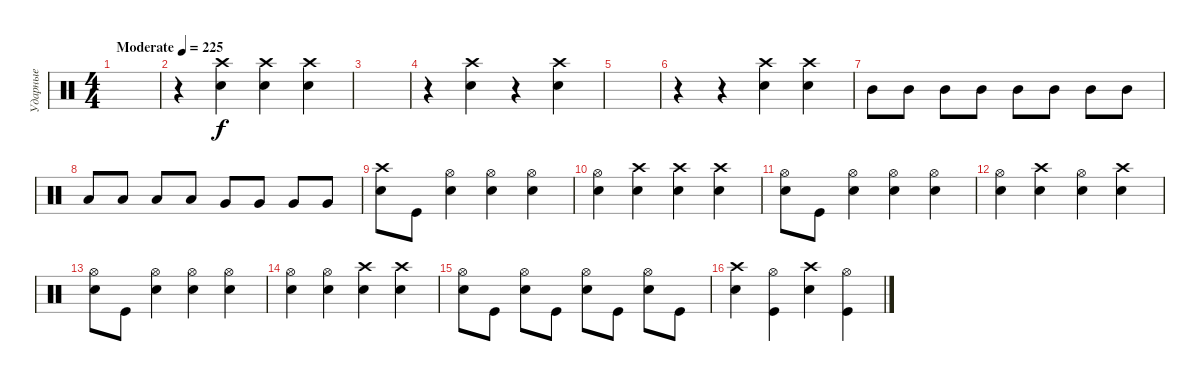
\track ("Ударные" "Ударные") {instrument percussion}
\staff {score}
\articulation defaults
\ts (4 4)
\tempo (225 "Moderate")
\clef neutral
\ks c
|
r.4 ("Snare (hit) 2" "Crash high (hit)").4 ("Snare (hit) 2" "Crash high (hit)").4 ("Snare (hit) 2" "Crash high (hit)").4 |
|
r.4 ("Snare (hit) 2" "Crash high (hit)").4 r.4 ("Snare (hit) 2" "Crash high (hit)").4 |
|
r.4 r.4 ("Snare (hit) 2" "Crash high (hit)").4 ("Snare (hit) 2" "Crash high (hit)").4 |
"Mid Tom (hit)".8 "Mid Tom (hit)".8 "Mid Tom (hit)".8 "Mid Tom (hit)".8 "Mid Tom (hit)".8 "Mid Tom (hit)".8 "Mid Tom (hit)".8 "Mid Tom (hit)".8 |
"Low Tom (hit)".8 "Low Tom (hit)".8 "Low Tom (hit)".8 "Low Tom (hit)".8 "Very Low Tom (hit)".8 "Very Low Tom (hit)".8 "Very Low Tom (hit)".8 "Very Low Tom (hit)".8 |
("Crash high (hit)" "Snare (hit) 2").8 "Kick (hit)".8 ("Hi-Hat (open)" "Snare (hit) 2").4 ("Hi-Hat (open)" "Snare (hit) 2").4 ("Hi-Hat (open)" "Snare (hit) 2").4 |
("Hi-Hat (open)" "Snare (hit) 2").4 ("Crash high (hit)" "Snare (hit) 2").4 ("Crash high (hit)" "Snare (hit) 2").4 ("Crash high (hit)" "Snare (hit) 2").4 |
("Hi-Hat (open)" "Snare (hit) 2").8 "Kick (hit)".8 ("Hi-Hat (open)" "Snare (hit) 2").4 ("Hi-Hat (open)" "Snare (hit) 2").4 ("Hi-Hat (open)" "Snare (hit) 2").4 |
("Hi-Hat (open)" "Snare (hit) 2").4 ("Crash high (hit)" "Snare (hit) 2").4 ("Hi-Hat (open)" "Snare (hit) 2").4 ("Crash high (hit)" "Snare (hit) 2").4 |
("Hi-Hat (open)" "Snare (hit) 2").8 "Kick (hit)".8 ("Hi-Hat (open)" "Snare (hit) 2").4 ("Hi-Hat (open)" "Snare (hit) 2").4 ("Hi-Hat (open)" "Snare (hit) 2").4 |
("Hi-Hat (open)" "Snare (hit) 2").4 ("Hi-Hat (open)" "Snare (hit) 2").4 ("Crash high (hit)" "Snare (hit) 2").4 ("Crash high (hit)" "Snare (hit) 2").4 |
("Hi-Hat (open)" "Snare (hit) 2").8 "Kick (hit)".8 ("Hi-Hat (open)" "Snare (hit) 2").8 "Kick (hit)".8 ("Hi-Hat (open)" "Snare (hit) 2").8 "Kick (hit)".8 ("Hi-Hat (open)" "Snare (hit) 2").8 "Kick (hit)".8 |
("Crash high (hit)" "Snare (hit) 2").4 ("Hi-Hat (open)" "Kick (hit)").4 ("Crash high (hit)" "Snare (hit) 2").4 ("Hi-Hat (open)" "Kick (hit)").4
